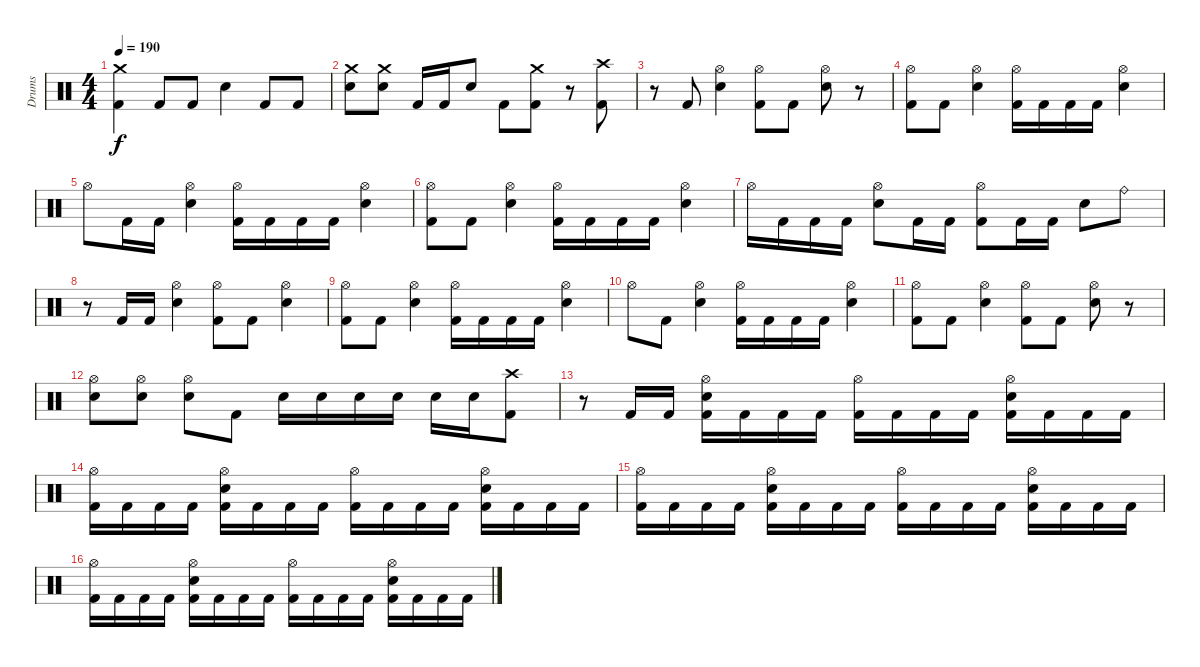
\track ("Drums" "Drums") {instrument percussion}
\staff {score}
\articulation defaults
\ts (4 4)
\tempo 190
\clef neutral
\ks c
("Crash medium (hit)" "Kick (hit) 2").4{dy f} "Kick (hit) 2".8 "Kick (hit) 2".8 "Snare (hit) 2".4 "Kick (hit) 2".8 "Kick (hit) 2".8 |
("Crash medium (hit)" "Snare (hit) 2").8 ("Crash medium (hit)" "Snare (hit) 2").8 "Kick (hit) 2".16 "Kick (hit) 2".16 "Snare (hit) 2".8 "Kick (hit) 2".8 ("Crash medium (hit)" "Kick (hit) 2").8 r.8 ("Crash high (hit)" "Kick (hit) 2").8 |
r.8 "Kick (hit) 2".8 ("Hi-Hat (open)" "Snare (hit) 2").4 ("Hi-Hat (open)" "Kick (hit) 2").8 "Kick (hit) 2".8 ("Hi-Hat (open)" "Snare (hit) 2").8 r.8 |
("Hi-Hat (open)" "Kick (hit) 2").8 "Kick (hit) 2".8 ("Hi-Hat (open)" "Snare (hit) 2").4 ("Hi-Hat (open)" "Kick (hit) 2").16 "Kick (hit) 2".16 "Kick (hit) 2".16 "Kick (hit) 2".16 ("Hi-Hat (open)" "Snare (hit) 2").4 |
"Hi-Hat (open)".8 "Kick (hit) 2".16 "Kick (hit) 2".16 ("Hi-Hat (open)" "Snare (hit) 2").4 ("Hi-Hat (open)" "Kick (hit) 2").16 "Kick (hit) 2".16 "Kick (hit) 2".16 "Kick (hit) 2".16 ("Hi-Hat (open)" "Snare (hit) 2").4 |
("Hi-Hat (open)" "Kick (hit) 2").8 "Kick (hit) 2".8 ("Hi-Hat (open)" "Snare (hit) 2").4 ("Hi-Hat (open)" "Kick (hit) 2").16 "Kick (hit) 2".16 "Kick (hit) 2".16 "Kick (hit) 2".16 ("Hi-Hat (open)" "Snare (hit) 2").4 |
"Hi-Hat (open)".16 "Kick (hit) 2".16 "Kick (hit) 2".16 "Kick (hit) 2".16 ("Hi-Hat (open)" "Snare (hit) 2").8 "Kick (hit) 2".16 "Kick (hit) 2".16 ("Hi-Hat (open)" "Kick (hit) 2").8 "Kick (hit) 2".16 "Kick (hit) 2".16 "Snare (hit) 2".8 "Ride (bell)".8 |
r.8 "Kick (hit) 2".16 "Kick (hit) 2".16 ("Hi-Hat (open)" "Snare (hit) 2").4 ("Hi-Hat (open)" "Kick (hit) 2").8 "Kick (hit) 2".8 ("Hi-Hat (open)" "Snare (hit) 2").4 |
("Hi-Hat (open)" "Kick (hit) 2").8 "Kick (hit) 2".8 ("Hi-Hat (open)" "Snare (hit) 2").4 ("Hi-Hat (open)" "Kick (hit) 2").16 "Kick (hit) 2".16 "Kick (hit) 2".16 "Kick (hit) 2".16 ("Hi-Hat (open)" "Snare (hit) 2").4 |
"Hi-Hat (open)".8 "Kick (hit) 2".8 ("Hi-Hat (open)" "Snare (hit) 2").4 ("Hi-Hat (open)" "Kick (hit) 2").16 "Kick (hit) 2".16 "Kick (hit) 2".16 "Kick (hit) 2".16 ("Hi-Hat (open)" "Snare (hit) 2").4 |
("Hi-Hat (open)" "Kick (hit) 2").8 "Kick (hit) 2".8 ("Hi-Hat (open)" "Snare (hit) 2").4 ("Hi-Hat (open)" "Kick (hit) 2").8 "Kick (hit) 2".8 ("Hi-Hat (open)" "Snare (hit) 2").8 r.8 |
("Hi-Hat (open)" "Snare (hit) 2").8 ("Hi-Hat (open)" "Snare (hit) 2").8 ("Hi-Hat (open)" "Snare (hit) 2").8 "Kick (hit) 2".8 "Snare (hit) 2".16 "Snare (hit) 2".16 "Snare (hit) 2".16 "Snare (hit) 2".16 "Snare (hit) 2".16 "Snare (hit) 2".16 ("Crash high (hit)" "Kick (hit) 2").8 |
r.8 "Kick (hit) 2".16 "Kick (hit) 2".16 ("Hi-Hat (open)" "Snare (hit) 2" "Kick (hit) 2").16 "Kick (hit) 2".16 "Kick (hit) 2".16 "Kick (hit) 2".16 ("Hi-Hat (open)" "Kick (hit) 2").16 "Kick (hit) 2".16 "Kick (hit) 2".16 "Kick (hit) 2".16 ("Hi-Hat (open)" "Snare (hit) 2" "Kick (hit) 2").16 "Kick (hit) 2".16 "Kick (hit) 2".16 "Kick (hit) 2".16 |
("Hi-Hat (open)" "Kick (hit) 2").16 "Kick (hit) 2".16 "Kick (hit) 2".16 "Kick (hit) 2".16 ("Hi-Hat (open)" "Snare (hit) 2" "Kick (hit) 2").16 "Kick (hit) 2".16 "Kick (hit) 2".16 "Kick (hit) 2".16 ("Hi-Hat (open)" "Kick (hit) 2").16 "Kick (hit) 2".16 "Kick (hit) 2".16 "Kick (hit) 2".16 ("Hi-Hat (open)" "Snare (hit) 2" "Kick (hit) 2").16 "Kick (hit) 2".16 "Kick (hit) 2".16 "Kick (hit) 2".16 |
("Hi-Hat (open)" "Kick (hit) 2").16 "Kick (hit) 2".16 "Kick (hit) 2".16 "Kick (hit) 2".16 ("Hi-Hat (open)" "Snare (hit) 2" "Kick (hit) 2").16 "Kick (hit) 2".16 "Kick (hit) 2".16 "Kick (hit) 2".16 ("Hi-Hat (open)" "Kick (hit) 2").16 "Kick (hit) 2".16 "Kick (hit) 2".16 "Kick (hit) 2".16 ("Hi-Hat (open)" "Snare (hit) 2" "Kick (hit) 2").16 "Kick (hit) 2".16 "Kick (hit) 2".16 "Kick (hit) 2".16 |
("Hi-Hat (open)" "Kick (hit) 2").16 "Kick (hit) 2".16 "Kick (hit) 2".16 "Kick (hit) 2".16 ("Hi-Hat (open)" "Snare (hit) 2" "Kick (hit) 2").16 "Kick (hit) 2".16 "Kick (hit) 2".16 "Kick (hit) 2".16 ("Hi-Hat (open)" "Kick (hit) 2").16 "Kick (hit) 2".16 "Kick (hit) 2".16 "Kick (hit) 2".16 ("Hi-Hat (open)" "Snare (hit) 2" "Kick (hit) 2").16 "Kick (hit) 2".16 "Kick (hit) 2".16 "Kick (hit) 2".16
